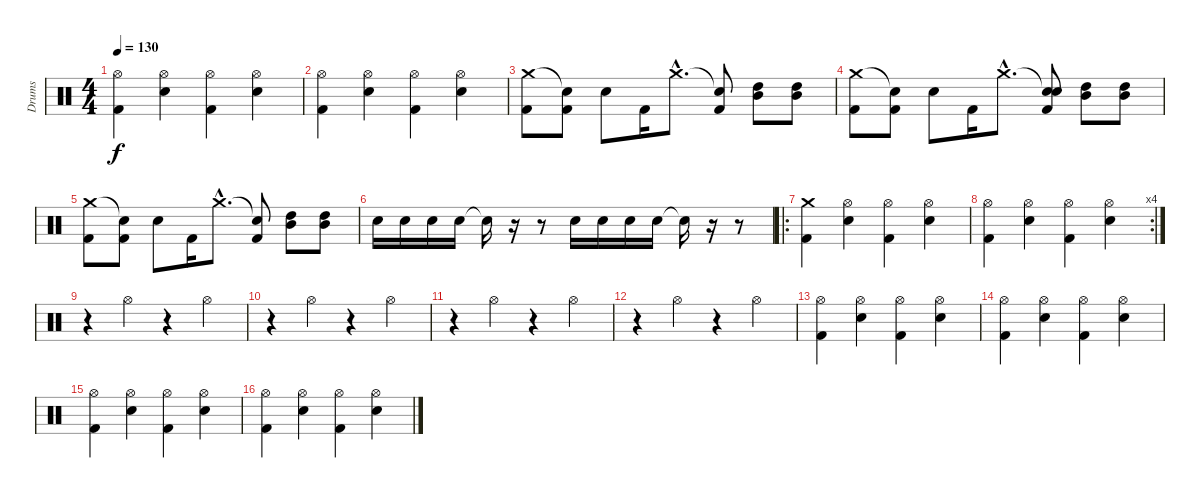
\track ("Drums" "Drums") {instrument percussion}
\staff {score}
\articulation defaults
\ts (4 4)
\tempo 130
\clef neutral
\ks c
("Hi-Hat (open)" "Kick (hit) 2").4{dy f} ("Hi-Hat (open)" "Electric Snare (hit)").4 ("Hi-Hat (open)" "Kick (hit) 2").4 ("Hi-Hat (open)" "Electric Snare (hit)").4 |
("Hi-Hat (open)" "Kick (hit) 2").4 ("Hi-Hat (open)" "Electric Snare (hit)").4 ("Hi-Hat (open)" "Kick (hit) 2").4 ("Hi-Hat (open)" "Electric Snare (hit)").4 |
("Crash medium (hit)" "Kick (hit) 2").8 ("Snare (hit)"{t} "Kick (hit) 2").8 "Electric Snare (hit)".8 "Kick (hit) 2".16 "Crash medium (hit)"{hac}.8{d} ("Snare (hit)"{t} "Kick (hit) 2").8 ("High Tom (hit)" "Mid Tom (hit)").8 ("High Tom (hit)" "Mid Tom (hit)").8 |
("Crash medium (hit)" "Kick (hit) 2").8 ("Snare (hit)"{t} "Kick (hit) 2").8 "Electric Snare (hit)".8 "Kick (hit) 2".16 "Crash medium (hit)"{hac}.8{d} ("Snare (hit)"{t} "Electric Snare (hit)" "Kick (hit) 2").8 ("Mid Tom (hit)" "High Tom (hit)").8 ("Mid Tom (hit)" "High Tom (hit)").8 |
("Crash medium (hit)" "Kick (hit) 2").8 ("Snare (hit)"{t} "Kick (hit) 2").8 "Electric Snare (hit)".8 "Kick (hit) 2".16 "Crash medium (hit)"{hac}.8{d} ("Snare (hit)"{t} "Kick (hit) 2").8 ("High Tom (hit)" "Mid Tom (hit)").8 ("High Tom (hit)" "Mid Tom (hit)").8 |
"Electric Snare (hit)".16 "Electric Snare (hit)".16 "Electric Snare (hit)".16 "Electric Snare (hit)".16 "Snare (hit)"{t}.16 r.16 r.8 "Electric Snare (hit)".16 "Electric Snare (hit)".16 "Electric Snare (hit)".16 "Electric Snare (hit)".16 "Snare (hit)"{t}.16 r.16 r.8 |
\ro
("Crash medium (hit)" "Kick (hit) 2").4 ("Hi-Hat (open)" "Electric Snare (hit)").4 ("Hi-Hat (open)" "Kick (hit) 2").4 ("Hi-Hat (open)" "Electric Snare (hit)").4 |
\rc 4
("Hi-Hat (open)" "Kick (hit) 2").4 ("Hi-Hat (open)" "Electric Snare (hit)").4 ("Hi-Hat (open)" "Kick (hit) 2").4 ("Hi-Hat (open)" "Electric Snare (hit)").4 |
r.4 "Hi-Hat (open)".4 r.4 "Hi-Hat (open)".4 |
r.4 "Hi-Hat (open)".4 r.4 "Hi-Hat (open)".4 |
r.4 "Hi-Hat (open)".4 r.4 "Hi-Hat (open)".4 |
r.4 "Hi-Hat (open)".4 r.4 "Hi-Hat (open)".4 |
("Hi-Hat (open)" "Kick (hit) 2").4 ("Hi-Hat (open)" "Electric Snare (hit)").4 ("Hi-Hat (open)" "Kick (hit) 2").4 ("Hi-Hat (open)" "Electric Snare (hit)").4 |
("Hi-Hat (open)" "Kick (hit) 2").4 ("Hi-Hat (open)" "Electric Snare (hit)").4 ("Hi-Hat (open)" "Kick (hit) 2").4 ("Hi-Hat (open)" "Electric Snare (hit)").4 |
("Hi-Hat (open)" "Kick (hit) 2").4 ("Hi-Hat (open)" "Electric Snare (hit)").4 ("Hi-Hat (open)" "Kick (hit) 2").4 ("Hi-Hat (open)" "Electric Snare (hit)").4 |
("Hi-Hat (open)" "Kick (hit) 2").4 ("Hi-Hat (open)" "Electric Snare (hit)").4 ("Hi-Hat (open)" "Kick (hit) 2").4 ("Hi-Hat (open)" "Electric Snare (hit)").4
